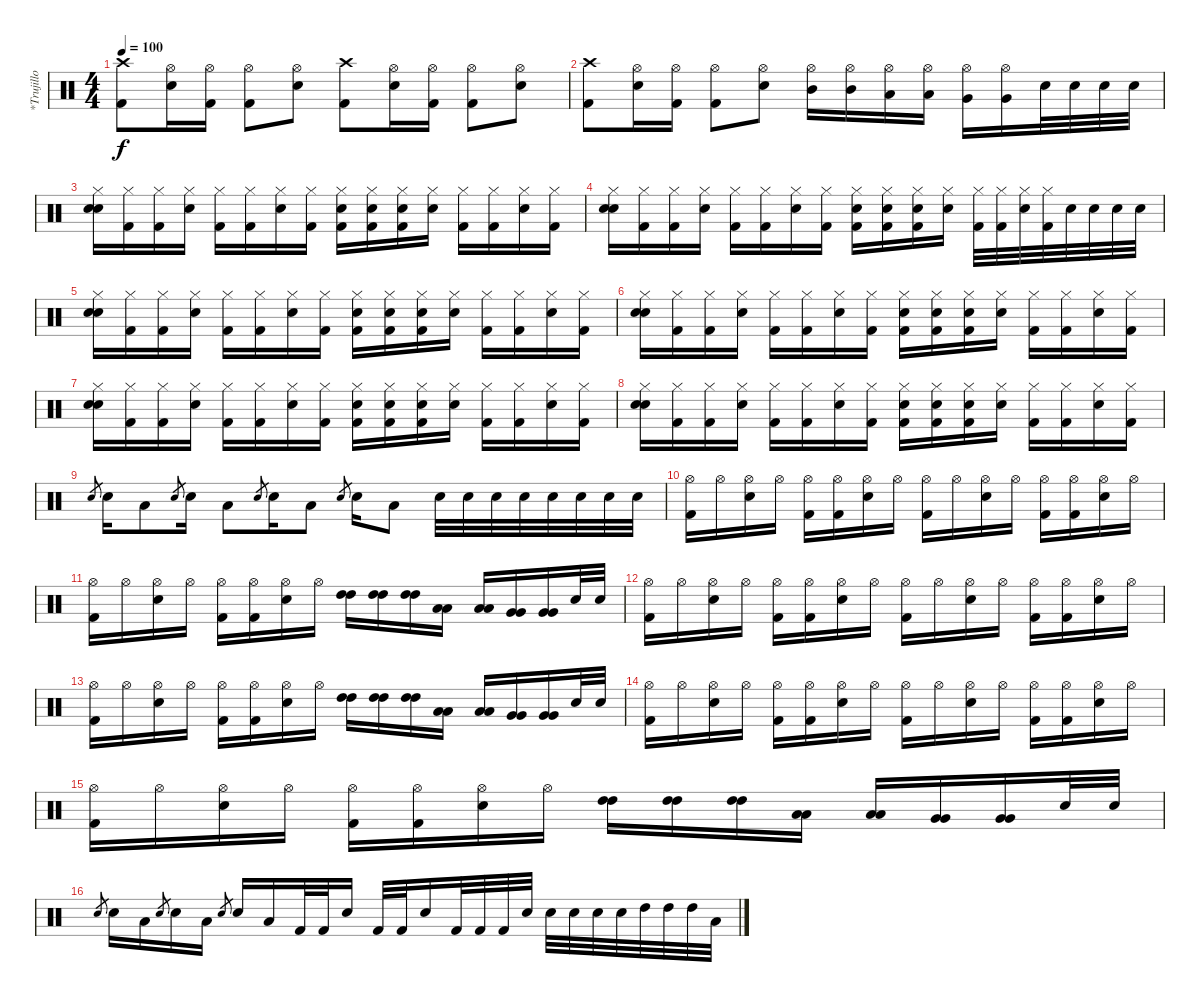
\track ("*Trujillo" "*Trujillo") {instrument percussion}
\staff {score}
\articulation defaults
\ts (4 4)
\tempo 100
\clef neutral
\ks c
("Crash high (hit)" "Kick (hit) 2").8{dy f} ("Hi-Hat (open)" "Electric Snare (hit)").16 ("Hi-Hat (open)" "Kick (hit) 2").16 ("Hi-Hat (open)" "Kick (hit) 2").8 ("Hi-Hat (open)" "Electric Snare (hit)").8 ("Crash high (hit)" "Kick (hit) 2").8 ("Hi-Hat (open)" "Electric Snare (hit)").16 ("Hi-Hat (open)" "Kick (hit) 2").16 ("Hi-Hat (open)" "Kick (hit) 2").8 ("Hi-Hat (open)" "Electric Snare (hit)").8 |
("Crash high (hit)" "Kick (hit) 2").8 ("Hi-Hat (open)" "Electric Snare (hit)").16 ("Hi-Hat (open)" "Kick (hit) 2").16 ("Hi-Hat (open)" "Kick (hit) 2").8 ("Hi-Hat (open)" "Electric Snare (hit)").8 ("Hi-Hat (open)" "Mid Tom (hit)").16 ("Hi-Hat (open)" "Mid Tom (hit)").16 ("Hi-Hat (open)" "Low Tom (hit)").16 ("Hi-Hat (open)" "Low Tom (hit)").16 ("Hi-Hat (open)" "Very Low Tom (hit)").16 ("Hi-Hat (open)" "Very Low Tom (hit)").16 "Electric Snare (hit)".32 "Electric Snare (hit)".32 "Electric Snare (hit)".32 "Electric Snare (hit)".32 |
("Hi-Hat (closed)" "Snare (hit) 2" "Electric Snare (hit)"{x}).16 ("Hi-Hat (closed)" "Kick (hit) 2").16 ("Hi-Hat (closed)" "Kick (hit) 2").16 ("Hi-Hat (closed)" "Snare (hit) 2").16 ("Hi-Hat (closed)" "Kick (hit) 2").16 ("Hi-Hat (closed)" "Kick (hit) 2").16 ("Hi-Hat (closed)" "Snare (hit) 2").16 ("Hi-Hat (closed)" "Kick (hit) 2").16 ("Hi-Hat (closed)" "Electric Snare (hit)" "Kick (hit) 2").16 ("Hi-Hat (closed)" "Electric Snare (hit)"{x} "Kick (hit) 2").16 ("Hi-Hat (closed)" "Snare (hit)" "Kick (hit) 2").16 ("Hi-Hat (closed)" "Electric Snare (hit)").16 ("Hi-Hat (closed)" "Kick (hit) 2").16 ("Hi-Hat (closed)" "Kick (hit) 2").16 ("Hi-Hat (closed)" "Electric Snare (hit)").16 ("Hi-Hat (closed)" "Kick (hit) 2").16 |
("Hi-Hat (closed)" "Snare (hit) 2" "Electric Snare (hit)"{x}).16 ("Hi-Hat (closed)" "Kick (hit) 2").16 ("Hi-Hat (closed)" "Kick (hit) 2").16 ("Hi-Hat (closed)" "Snare (hit) 2").16 ("Hi-Hat (closed)" "Kick (hit) 2").16 ("Hi-Hat (closed)" "Kick (hit) 2").16 ("Hi-Hat (closed)" "Snare (hit) 2").16 ("Hi-Hat (closed)" "Kick (hit) 2").16 ("Hi-Hat (closed)" "Electric Snare (hit)" "Kick (hit) 2").16 ("Hi-Hat (closed)" "Electric Snare (hit)"{x} "Kick (hit) 2").16 ("Hi-Hat (closed)" "Snare (hit)" "Kick (hit) 2").16 ("Hi-Hat (closed)" "Electric Snare (hit)").16 ("Hi-Hat (closed)" "Kick (hit) 2").32 ("Hi-Hat (closed)" "Kick (hit) 2").32 ("Hi-Hat (closed)" "Electric Snare (hit)").32 ("Hi-Hat (closed)" "Kick (hit) 2").32 "Electric Snare (hit)".32 "Electric Snare (hit)".32 "Electric Snare (hit)".32 "Electric Snare (hit)".32 |
("Hi-Hat (closed)" "Snare (hit) 2" "Electric Snare (hit)"{x}).16 ("Hi-Hat (closed)" "Kick (hit) 2").16 ("Hi-Hat (closed)" "Kick (hit) 2").16 ("Hi-Hat (closed)" "Snare (hit) 2").16 ("Hi-Hat (closed)" "Kick (hit) 2").16 ("Hi-Hat (closed)" "Kick (hit) 2").16 ("Hi-Hat (closed)" "Snare (hit) 2").16 ("Hi-Hat (closed)" "Kick (hit) 2").16 ("Hi-Hat (closed)" "Electric Snare (hit)" "Kick (hit) 2").16 ("Hi-Hat (closed)" "Electric Snare (hit)"{x} "Kick (hit) 2").16 ("Hi-Hat (closed)" "Snare (hit)" "Kick (hit) 2").16 ("Hi-Hat (closed)" "Electric Snare (hit)").16 ("Hi-Hat (closed)" "Kick (hit) 2").16 ("Hi-Hat (closed)" "Kick (hit) 2").16 ("Hi-Hat (closed)" "Electric Snare (hit)").16 ("Hi-Hat (closed)" "Kick (hit) 2").16 |
("Hi-Hat (closed)" "Snare (hit) 2" "Electric Snare (hit)"{x}).16 ("Hi-Hat (closed)" "Kick (hit) 2").16 ("Hi-Hat (closed)" "Kick (hit) 2").16 ("Hi-Hat (closed)" "Snare (hit) 2").16 ("Hi-Hat (closed)" "Kick (hit) 2").16 ("Hi-Hat (closed)" "Kick (hit) 2").16 ("Hi-Hat (closed)" "Snare (hit) 2").16 ("Hi-Hat (closed)" "Kick (hit) 2").16 ("Hi-Hat (closed)" "Electric Snare (hit)" "Kick (hit) 2").16 ("Hi-Hat (closed)" "Electric Snare (hit)"{x} "Kick (hit) 2").16 ("Hi-Hat (closed)" "Snare (hit)" "Kick (hit) 2").16 ("Hi-Hat (closed)" "Electric Snare (hit)").16 ("Hi-Hat (closed)" "Kick (hit) 2").16 ("Hi-Hat (closed)" "Kick (hit) 2").16 ("Hi-Hat (closed)" "Electric Snare (hit)").16 ("Hi-Hat (closed)" "Kick (hit) 2").16 |
("Hi-Hat (closed)" "Snare (hit) 2" "Electric Snare (hit)"{x}).16 ("Hi-Hat (closed)" "Kick (hit) 2").16 ("Hi-Hat (closed)" "Kick (hit) 2").16 ("Hi-Hat (closed)" "Snare (hit) 2").16 ("Hi-Hat (closed)" "Kick (hit) 2").16 ("Hi-Hat (closed)" "Kick (hit) 2").16 ("Hi-Hat (closed)" "Snare (hit) 2").16 ("Hi-Hat (closed)" "Kick (hit) 2").16 ("Hi-Hat (closed)" "Electric Snare (hit)" "Kick (hit) 2").16 ("Hi-Hat (closed)" "Electric Snare (hit)"{x} "Kick (hit) 2").16 ("Hi-Hat (closed)" "Snare (hit)" "Kick (hit) 2").16 ("Hi-Hat (closed)" "Electric Snare (hit)").16 ("Hi-Hat (closed)" "Kick (hit) 2").16 ("Hi-Hat (closed)" "Kick (hit) 2").16 ("Hi-Hat (closed)" "Electric Snare (hit)").16 ("Hi-Hat (closed)" "Kick (hit) 2").16 |
("Hi-Hat (closed)" "Snare (hit) 2" "Electric Snare (hit)"{x}).16 ("Hi-Hat (closed)" "Kick (hit) 2").16 ("Hi-Hat (closed)" "Kick (hit) 2").16 ("Hi-Hat (closed)" "Snare (hit) 2").16 ("Hi-Hat (closed)" "Kick (hit) 2").16 ("Hi-Hat (closed)" "Kick (hit) 2").16 ("Hi-Hat (closed)" "Snare (hit) 2").16 ("Hi-Hat (closed)" "Kick (hit) 2").16 ("Hi-Hat (closed)" "Electric Snare (hit)" "Kick (hit) 2").16 ("Hi-Hat (closed)" "Electric Snare (hit)"{x} "Kick (hit) 2").16 ("Hi-Hat (closed)" "Snare (hit)" "Kick (hit) 2").16 ("Hi-Hat (closed)" "Electric Snare (hit)").16 ("Hi-Hat (closed)" "Kick (hit) 2").16 ("Hi-Hat (closed)" "Kick (hit) 2").16 ("Hi-Hat (closed)" "Electric Snare (hit)").16 ("Hi-Hat (closed)" "Kick (hit) 2").16 |
"Electric Snare (hit)".8{gr} "Electric Snare (hit)".16 "Low Tom (hit)".8 "Electric Snare (hit)".8{gr} "Electric Snare (hit)".16 "Low Tom (hit)".8 "Electric Snare (hit)".8{gr} "Electric Snare (hit)".16 "Low Tom (hit)".8 "Electric Snare (hit)".8{gr} "Electric Snare (hit)".16 "Low Tom (hit)".8 "Electric Snare (hit)".32 "Electric Snare (hit)".32 "Electric Snare (hit)".32 "Electric Snare (hit)".32 "Electric Snare (hit)".32 "Electric Snare (hit)".32 "Electric Snare (hit)".32 "Electric Snare (hit)".32 |
("Hi-Hat (open)" "Kick (hit) 2").16 "Hi-Hat (open)".16 ("Hi-Hat (open)" "Electric Snare (hit)").16 "Hi-Hat (open)".16 ("Hi-Hat (open)" "Kick (hit) 2").16 ("Hi-Hat (open)" "Kick (hit) 2").16 ("Hi-Hat (open)" "Electric Snare (hit)").16 "Hi-Hat (open)".16 ("Hi-Hat (open)" "Kick (hit) 2").16 "Hi-Hat (open)".16 ("Hi-Hat (open)" "Electric Snare (hit)").16 "Hi-Hat (open)".16 ("Hi-Hat (open)" "Kick (hit) 2").16 ("Hi-Hat (open)" "Kick (hit) 2").16 ("Hi-Hat (open)" "Electric Snare (hit)").16 "Hi-Hat (open)".16 |
("Hi-Hat (open)" "Kick (hit) 2").16 "Hi-Hat (open)".16 ("Hi-Hat (open)" "Electric Snare (hit)").16 "Hi-Hat (open)".16 ("Hi-Hat (open)" "Kick (hit) 2").16 ("Hi-Hat (open)" "Kick (hit) 2").16 ("Hi-Hat (open)" "Electric Snare (hit)").16 "Hi-Hat (open)".16 ("High Tom (hit)" "High Tom (hit)").16 ("High Tom (hit)" "High Tom (hit)").16 ("High Tom (hit)" "High Tom (hit)").16 ("Low Tom (hit)" "Low Tom (hit)").16 ("Low Tom (hit)" "Low Tom (hit)").16 ("Very Low Tom (hit)" "Very Low Tom (hit)").16 ("Very Low Tom (hit)" "Very Low Tom (hit)").16 "Electric Snare (hit)".32 "Electric Snare (hit)".32 |
("Hi-Hat (open)" "Kick (hit) 2").16 "Hi-Hat (open)".16 ("Hi-Hat (open)" "Electric Snare (hit)").16 "Hi-Hat (open)".16 ("Hi-Hat (open)" "Kick (hit) 2").16 ("Hi-Hat (open)" "Kick (hit) 2").16 ("Hi-Hat (open)" "Electric Snare (hit)").16 "Hi-Hat (open)".16 ("Hi-Hat (open)" "Kick (hit) 2").16 "Hi-Hat (open)".16 ("Hi-Hat (open)" "Electric Snare (hit)").16 "Hi-Hat (open)".16 ("Hi-Hat (open)" "Kick (hit) 2").16 ("Hi-Hat (open)" "Kick (hit) 2").16 ("Hi-Hat (open)" "Electric Snare (hit)").16 "Hi-Hat (open)".16 |
("Hi-Hat (open)" "Kick (hit) 2").16 "Hi-Hat (open)".16 ("Hi-Hat (open)" "Electric Snare (hit)").16 "Hi-Hat (open)".16 ("Hi-Hat (open)" "Kick (hit) 2").16 ("Hi-Hat (open)" "Kick (hit) 2").16 ("Hi-Hat (open)" "Electric Snare (hit)").16 "Hi-Hat (open)".16 ("High Tom (hit)" "High Tom (hit)").16 ("High Tom (hit)" "High Tom (hit)").16 ("High Tom (hit)" "High Tom (hit)").16 ("Low Tom (hit)" "Low Tom (hit)").16 ("Low Tom (hit)" "Low Tom (hit)").16 ("Very Low Tom (hit)" "Very Low Tom (hit)").16 ("Very Low Tom (hit)" "Very Low Tom (hit)").16 "Electric Snare (hit)".32 "Electric Snare (hit)".32 |
("Hi-Hat (open)" "Kick (hit) 2").16 "Hi-Hat (open)".16 ("Hi-Hat (open)" "Electric Snare (hit)").16 "Hi-Hat (open)".16 ("Hi-Hat (open)" "Kick (hit) 2").16 ("Hi-Hat (open)" "Kick (hit) 2").16 ("Hi-Hat (open)" "Electric Snare (hit)").16 "Hi-Hat (open)".16 ("Hi-Hat (open)" "Kick (hit) 2").16 "Hi-Hat (open)".16 ("Hi-Hat (open)" "Electric Snare (hit)").16 "Hi-Hat (open)".16 ("Hi-Hat (open)" "Kick (hit) 2").16 ("Hi-Hat (open)" "Kick (hit) 2").16 ("Hi-Hat (open)" "Electric Snare (hit)").16 "Hi-Hat (open)".16 |
("Hi-Hat (open)" "Kick (hit) 2").16 "Hi-Hat (open)".16 ("Hi-Hat (open)" "Electric Snare (hit)").16 "Hi-Hat (open)".16 ("Hi-Hat (open)" "Kick (hit) 2").16 ("Hi-Hat (open)" "Kick (hit) 2").16 ("Hi-Hat (open)" "Electric Snare (hit)").16 "Hi-Hat (open)".16 ("High Tom (hit)" "High Tom (hit)").16 ("High Tom (hit)" "High Tom (hit)").16 ("High Tom (hit)" "High Tom (hit)").16 ("Low Tom (hit)" "Low Tom (hit)").16 ("Low Tom (hit)" "Low Tom (hit)").16 ("Very Low Tom (hit)" "Very Low Tom (hit)").16 ("Very Low Tom (hit)" "Very Low Tom (hit)").16 "Electric Snare (hit)".32 "Electric Snare (hit)".32 |
"Electric Snare (hit)".8{gr} "Electric Snare (hit)".16 "Low Tom (hit)".16 "Electric Snare (hit)".8{gr} "Electric Snare (hit)".16 "Low Tom (hit)".16 "Electric Snare (hit)".8{gr} "Electric Snare (hit)".16 "Low Tom (hit)".16 "Kick (hit) 2".32 "Kick (hit) 2".32 "Electric Snare (hit)".16 "Kick (hit) 2".32 "Kick (hit) 2".32 "Electric Snare (hit)".16 "Kick (hit) 2".32 "Kick (hit) 2".32 "Kick (hit) 2".32 "Electric Snare (hit)".32 "Electric Snare (hit)".32 "Electric Snare (hit)".32 "Electric Snare (hit)".32 "Electric Snare (hit)".32 "High Tom (hit)".32 "High Tom (hit)".32 "High Tom (hit)".32 "Low Tom (hit)".32
